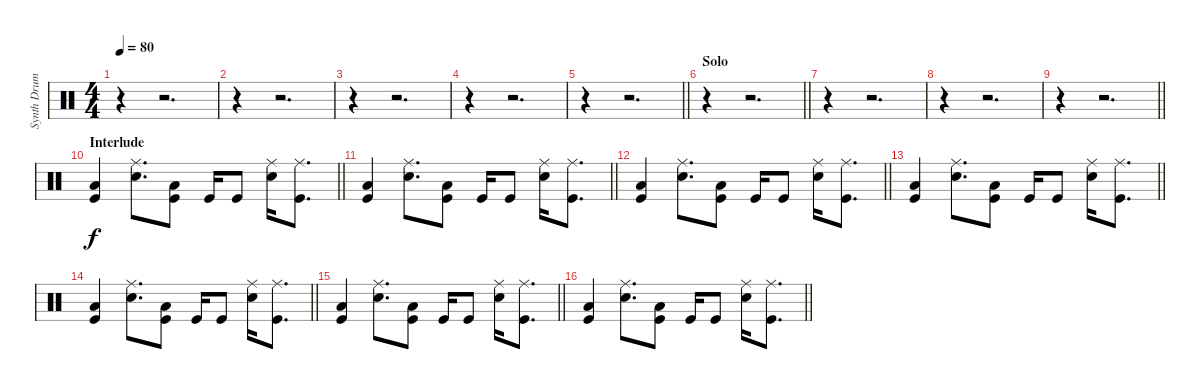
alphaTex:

\track ("Synth Drums" "Synth Drum") {instrument percussion}
\staff {score}
\articulation defaults
\ts (4 4)
\tempo 80
\clef neutral
\ks c
r.4{dy f} r.2{d} |
r.4 r.2{d} |
r.4 r.2{d} |
r.4 r.2{d} |
\barLineRight lightlight
r.4 r.2{d} |
\section ("" "Solo")
\barLineRight lightlight
r.4 r.2{d} |
r.4 r.2{d} |
r.4 r.2{d} |
\barLineRight lightlight
r.4 r.2{d} |
\section ("" "Interlude")
\barLineRight lightlight
("Kick (hit)" "Low Floor Tom (hit)").4 ("Snare (hit) 2" "Ride (middle)").8{d} ("Kick (hit)" "Low Floor Tom (hit)").8 "Kick (hit)".16 "Kick (hit)".8 ("Snare (hit) 2" "Ride (middle)").16 ("Kick (hit)" "Ride (middle)").8{d} |
\barLineRight lightlight
("Kick (hit)" "Low Floor Tom (hit)").4 ("Snare (hit) 2" "Ride (middle)").8{d} ("Kick (hit)" "Low Floor Tom (hit)").8 "Kick (hit)".16 "Kick (hit)".8 ("Snare (hit) 2" "Ride (middle)").16 ("Kick (hit)" "Ride (middle)").8{d} |
\barLineRight lightlight
("Kick (hit)" "Low Floor Tom (hit)").4 ("Snare (hit) 2" "Ride (middle)").8{d} ("Kick (hit)" "Low Floor Tom (hit)").8 "Kick (hit)".16 "Kick (hit)".8 ("Snare (hit) 2" "Ride (middle)").16 ("Kick (hit)" "Ride (middle)").8{d} |
\barLineRight lightlight
("Kick (hit)" "Low Floor Tom (hit)").4 ("Snare (hit) 2" "Ride (middle)").8{d} ("Kick (hit)" "Low Floor Tom (hit)").8 "Kick (hit)".16 "Kick (hit)".8 ("Snare (hit) 2" "Ride (middle)").16 ("Kick (hit)" "Ride (middle)").8{d} |
\barLineRight lightlight
("Kick (hit)" "Low Floor Tom (hit)").4 ("Snare (hit) 2" "Ride (middle)").8{d} ("Kick (hit)" "Low Floor Tom (hit)").8 "Kick (hit)".16 "Kick (hit)".8 ("Snare (hit) 2" "Ride (middle)").16 ("Kick (hit)" "Ride (middle)").8{d} |
\barLineRight lightlight
("Kick (hit)" "Low Floor Tom (hit)").4 ("Snare (hit) 2" "Ride (middle)").8{d} ("Kick (hit)" "Low Floor Tom (hit)").8 "Kick (hit)".16 "Kick (hit)".8 ("Snare (hit) 2" "Ride (middle)").16 ("Kick (hit)" "Ride (middle)").8{d} |
\barLineRight lightlight
("Kick (hit)" "Low Floor Tom (hit)").4 ("Snare (hit) 2" "Ride (middle)").8{d} ("Kick (hit)" "Low Floor Tom (hit)").8 "Kick (hit)".16 "Kick (hit)".8 ("Snare (hit) 2" "Ride (middle)").16 ("Kick (hit)" "Ride (middle)").8{d}
